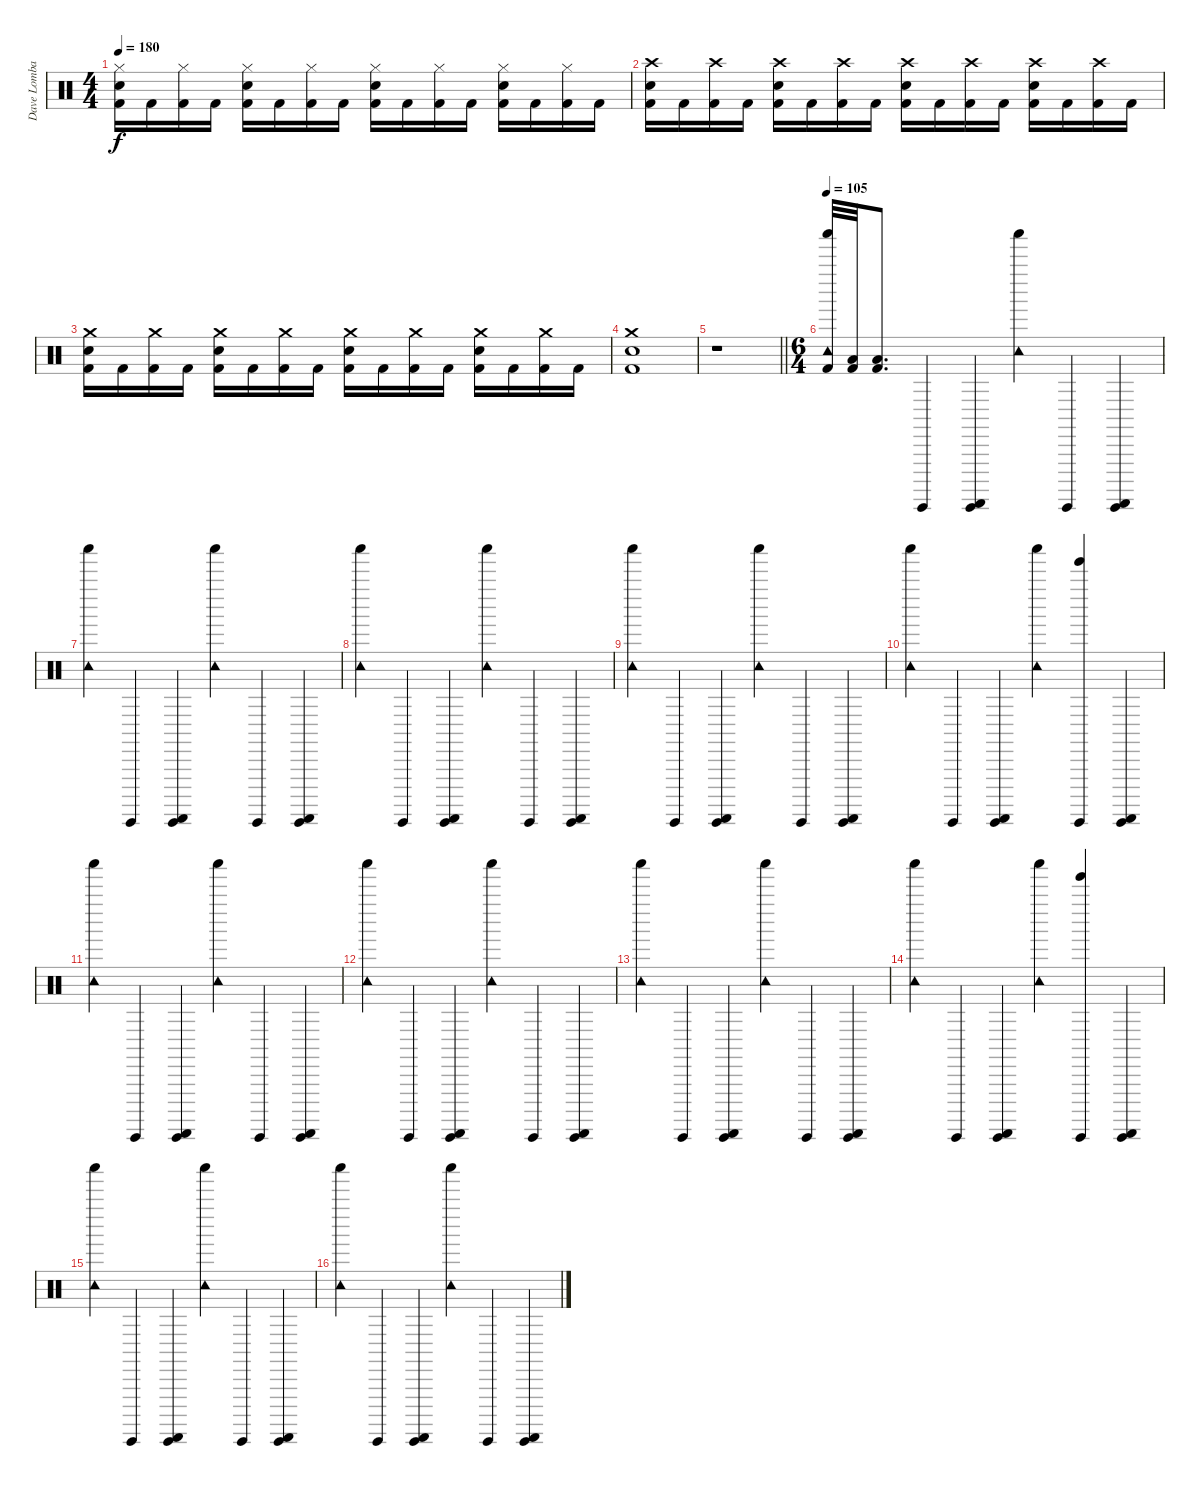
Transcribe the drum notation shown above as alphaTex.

\track ("Dave Lombardo" "Dave Lomba") {instrument percussion}
\staff {score}
\articulation defaults
\ts (4 4)
\tempo 180
\clef neutral
\ks c
("Hi-Hat (closed)" "Snare (hit) 2" "Kick (hit) 2").16{dy f} "Kick (hit) 2".16 ("Hi-Hat (closed)" "Kick (hit) 2").16 "Kick (hit) 2".16 ("Hi-Hat (closed)" "Snare (hit) 2" "Kick (hit) 2").16 "Kick (hit) 2".16 ("Hi-Hat (closed)" "Kick (hit) 2").16 "Kick (hit) 2".16 ("Hi-Hat (closed)" "Snare (hit) 2" "Kick (hit) 2").16 "Kick (hit) 2".16 ("Hi-Hat (closed)" "Kick (hit) 2").16 "Kick (hit) 2".16 ("Hi-Hat (closed)" "Snare (hit) 2" "Kick (hit) 2").16 "Kick (hit) 2".16 ("Hi-Hat (closed)" "Kick (hit) 2").16 "Kick (hit) 2".16 |
("Crash high (hit)" "Snare (hit) 2" "Kick (hit) 2").16 "Kick (hit) 2".16 ("Crash high (hit)" "Kick (hit) 2").16 "Kick (hit) 2".16 ("Crash high (hit)" "Snare (hit) 2" "Kick (hit) 2").16 "Kick (hit) 2".16 ("Crash high (hit)" "Kick (hit) 2").16 "Kick (hit) 2".16 ("Crash high (hit)" "Snare (hit) 2" "Kick (hit) 2").16 "Kick (hit) 2".16 ("Crash high (hit)" "Kick (hit) 2").16 "Kick (hit) 2".16 ("Crash high (hit)" "Snare (hit) 2" "Kick (hit) 2").16 "Kick (hit) 2".16 ("Crash high (hit)" "Kick (hit) 2").16 "Kick (hit) 2".16 |
("Crash medium (hit)" "Snare (hit) 2" "Kick (hit) 2").16 "Kick (hit) 2".16 ("Crash medium (hit)" "Kick (hit) 2").16 "Kick (hit) 2".16 ("Crash medium (hit)" "Snare (hit) 2" "Kick (hit) 2").16 "Kick (hit) 2".16 ("Crash medium (hit)" "Kick (hit) 2").16 "Kick (hit) 2".16 ("Crash medium (hit)" "Snare (hit) 2" "Kick (hit) 2").16 "Kick (hit) 2".16 ("Crash medium (hit)" "Kick (hit) 2").16 "Kick (hit) 2".16 ("Crash medium (hit)" "Snare (hit) 2" "Kick (hit) 2").16 "Kick (hit) 2".16 ("Crash medium (hit)" "Kick (hit) 2").16 "Kick (hit) 2".16 |
("Crash medium (hit)" "Snare (hit) 2" "Kick (hit) 2").1 |
\barLineRight lightlight
r.1 |
\ts (6 4)
\tempo 105
("Shaker (hit)" "Tambourine (hit)" "Kick (hit) 2").32 ("Low Floor Tom (hit)" "Kick (hit) 2").32 ("Low Floor Tom (hit)" "Kick (hit) 2").8{d} "Guiro (hit)".4 ("Guiro (hit)" "Guiro (scrap-return)").4 ("Shaker (hit)" "Tambourine (hit)").4 "Guiro (hit)".4 ("Guiro (hit)" "Guiro (scrap-return)").4 |
("Shaker (hit)" "Tambourine (hit)").4 "Guiro (hit)".4 ("Guiro (hit)" "Guiro (scrap-return)").4 ("Shaker (hit)" "Tambourine (hit)").4 "Guiro (hit)".4 ("Guiro (hit)" "Guiro (scrap-return)").4 |
("Shaker (hit)" "Tambourine (hit)").4 "Guiro (hit)".4 ("Guiro (hit)" "Guiro (scrap-return)").4 ("Shaker (hit)" "Tambourine (hit)").4 "Guiro (hit)".4 ("Guiro (hit)" "Guiro (scrap-return)").4 |
("Shaker (hit)" "Tambourine (hit)").4 "Guiro (hit)".4 ("Guiro (hit)" "Guiro (scrap-return)").4 ("Shaker (hit)" "Tambourine (hit)").4 "Guiro (hit)".4 ("Guiro (hit)" "Guiro (scrap-return)").4 |
("Shaker (hit)" "Tambourine (hit)").4 "Guiro (hit)".4 ("Guiro (hit)" "Guiro (scrap-return)").4 ("Shaker (hit)" "Tambourine (hit)").4 ("Guiro (hit)" "Tinkle Bell (hit)").4 ("Guiro (hit)" "Guiro (scrap-return)").4 |
("Shaker (hit)" "Tambourine (hit)").4 "Guiro (hit)".4 ("Guiro (hit)" "Guiro (scrap-return)").4 ("Shaker (hit)" "Tambourine (hit)").4 "Guiro (hit)".4 ("Guiro (hit)" "Guiro (scrap-return)").4 |
("Shaker (hit)" "Tambourine (hit)").4 "Guiro (hit)".4 ("Guiro (hit)" "Guiro (scrap-return)").4 ("Shaker (hit)" "Tambourine (hit)").4 "Guiro (hit)".4 ("Guiro (hit)" "Guiro (scrap-return)").4 |
("Shaker (hit)" "Tambourine (hit)").4 "Guiro (hit)".4 ("Guiro (hit)" "Guiro (scrap-return)").4 ("Shaker (hit)" "Tambourine (hit)").4 "Guiro (hit)".4 ("Guiro (hit)" "Guiro (scrap-return)").4 |
("Shaker (hit)" "Tambourine (hit)").4 "Guiro (hit)".4 ("Guiro (hit)" "Guiro (scrap-return)").4 ("Shaker (hit)" "Tambourine (hit)").4 ("Guiro (hit)" "Tinkle Bell (hit)").4 ("Guiro (hit)" "Guiro (scrap-return)").4 |
("Shaker (hit)" "Tambourine (hit)").4 "Guiro (hit)".4 ("Guiro (hit)" "Guiro (scrap-return)").4 ("Shaker (hit)" "Tambourine (hit)").4 "Guiro (hit)".4 ("Guiro (hit)" "Guiro (scrap-return)").4 |
("Shaker (hit)" "Tambourine (hit)").4 "Guiro (hit)".4 ("Guiro (hit)" "Guiro (scrap-return)").4 ("Shaker (hit)" "Tambourine (hit)").4 "Guiro (hit)".4 ("Guiro (hit)" "Guiro (scrap-return)").4
